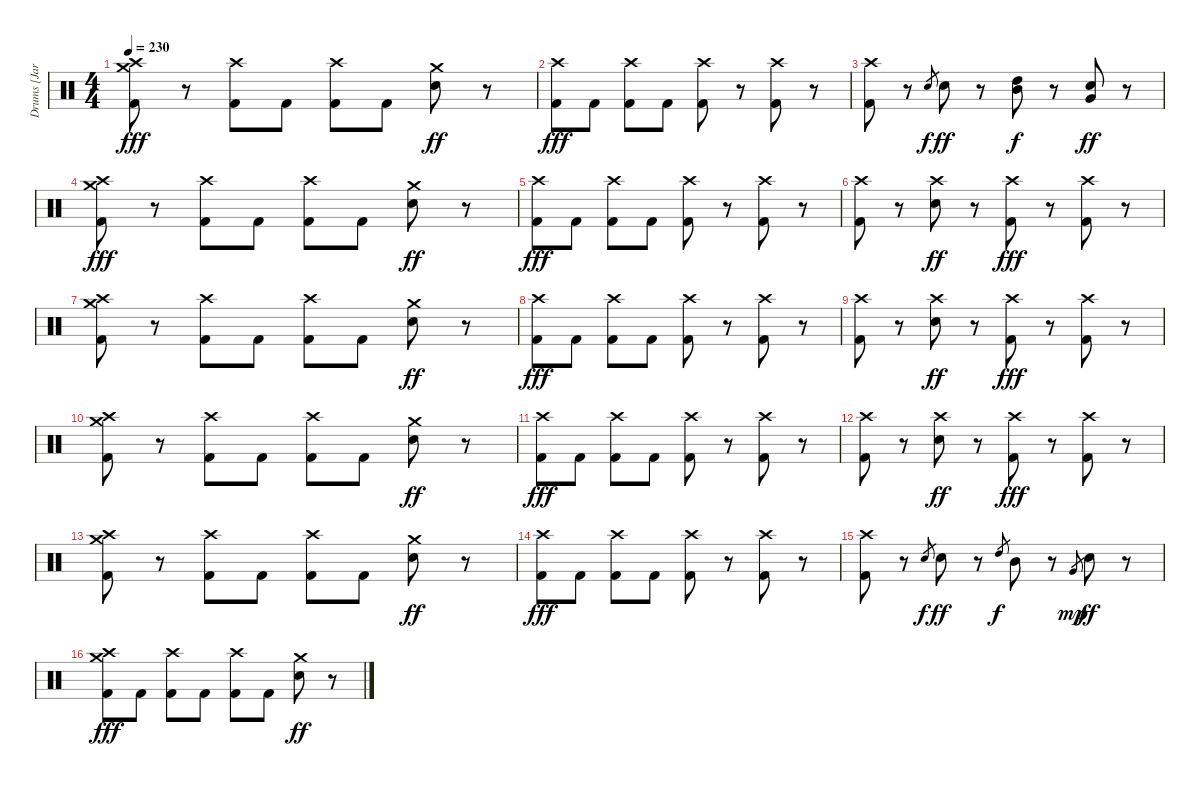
\track ("Drums [Jared]" "Drums [Jar") {instrument percussion}
\staff {score}
\articulation defaults
\ts (4 4)
\tempo 230
\clef neutral
\ks c
("Crash medium (hit)" "Crash high (hit)" "Kick (hit) 2").8{dy fff} r.8 ("Crash high (hit)" "Kick (hit) 2").8 "Kick (hit) 2".8 ("Crash high (hit)" "Kick (hit) 2").8 "Kick (hit) 2".8 ("Crash medium (hit)" "Electric Snare (hit)").8{dy ff} r.8 |
("Crash high (hit)" "Kick (hit) 2").8{dy fff} "Kick (hit) 2".8 ("Crash high (hit)" "Kick (hit) 2").8 "Kick (hit) 2".8 ("Crash high (hit)" "Kick (hit) 2").8 r.8 ("Crash high (hit)" "Kick (hit) 2").8 r.8 |
("Crash high (hit)" "Kick (hit) 2").8 r.8 "Electric Snare (hit)".8{gr dy f} "Electric Snare (hit)".8{dy ff} r.8 ("High Tom (hit)" "Mid Tom (hit)").8{dy f} r.8 ("Very Low Tom (hit)" "Electric Snare (hit)").8{dy ff} r.8 |
("Crash medium (hit)" "Crash high (hit)" "Kick (hit) 2").8{dy fff} r.8 ("Crash high (hit)" "Kick (hit) 2").8 "Kick (hit) 2".8 ("Crash high (hit)" "Kick (hit) 2").8 "Kick (hit) 2".8 ("Crash medium (hit)" "Electric Snare (hit)").8{dy ff} r.8 |
("Crash high (hit)" "Kick (hit) 2").8{dy fff} "Kick (hit) 2".8 ("Crash high (hit)" "Kick (hit) 2").8 "Kick (hit) 2".8 ("Crash high (hit)" "Kick (hit) 2").8 r.8 ("Crash high (hit)" "Kick (hit) 2").8 r.8 |
("Crash high (hit)" "Kick (hit) 2").8 r.8 ("Crash high (hit)" "Electric Snare (hit)").8{dy ff} r.8 ("Crash high (hit)" "Kick (hit) 2").8{dy fff} r.8 ("Crash high (hit)" "Kick (hit) 2").8 r.8 |
("Crash medium (hit)" "Crash high (hit)" "Kick (hit) 2").8 r.8 ("Crash high (hit)" "Kick (hit) 2").8 "Kick (hit) 2".8 ("Crash high (hit)" "Kick (hit) 2").8 "Kick (hit) 2".8 ("Crash medium (hit)" "Electric Snare (hit)").8{dy ff} r.8 |
("Crash high (hit)" "Kick (hit) 2").8{dy fff} "Kick (hit) 2".8 ("Crash high (hit)" "Kick (hit) 2").8 "Kick (hit) 2".8 ("Crash high (hit)" "Kick (hit) 2").8 r.8 ("Crash high (hit)" "Kick (hit) 2").8 r.8 |
("Crash high (hit)" "Kick (hit) 2").8 r.8 ("Crash high (hit)" "Electric Snare (hit)").8{dy ff} r.8 ("Crash high (hit)" "Kick (hit) 2").8{dy fff} r.8 ("Crash high (hit)" "Kick (hit) 2").8 r.8 |
("Crash medium (hit)" "Crash high (hit)" "Kick (hit) 2").8 r.8 ("Crash high (hit)" "Kick (hit) 2").8 "Kick (hit) 2".8 ("Crash high (hit)" "Kick (hit) 2").8 "Kick (hit) 2".8 ("Crash medium (hit)" "Electric Snare (hit)").8{dy ff} r.8 |
("Crash high (hit)" "Kick (hit) 2").8{dy fff} "Kick (hit) 2".8 ("Crash high (hit)" "Kick (hit) 2").8 "Kick (hit) 2".8 ("Crash high (hit)" "Kick (hit) 2").8 r.8 ("Crash high (hit)" "Kick (hit) 2").8 r.8 |
("Crash high (hit)" "Kick (hit) 2").8 r.8 ("Crash high (hit)" "Electric Snare (hit)").8{dy ff} r.8 ("Crash high (hit)" "Kick (hit) 2").8{dy fff} r.8 ("Crash high (hit)" "Kick (hit) 2").8 r.8 |
("Crash medium (hit)" "Crash high (hit)" "Kick (hit) 2").8 r.8 ("Crash high (hit)" "Kick (hit) 2").8 "Kick (hit) 2".8 ("Crash high (hit)" "Kick (hit) 2").8 "Kick (hit) 2".8 ("Crash medium (hit)" "Electric Snare (hit)").8{dy ff} r.8 |
("Crash high (hit)" "Kick (hit) 2").8{dy fff} "Kick (hit) 2".8 ("Crash high (hit)" "Kick (hit) 2").8 "Kick (hit) 2".8 ("Crash high (hit)" "Kick (hit) 2").8 r.8 ("Crash high (hit)" "Kick (hit) 2").8 r.8 |
("Crash high (hit)" "Kick (hit) 2").8 r.8 "Electric Snare (hit)".8{gr dy f} "Electric Snare (hit)".8{dy ff} r.8 "High Tom (hit)".8{gr dy f} "Mid Tom (hit)".8 r.8 "Very Low Tom (hit)".8{gr dy mp} "Electric Snare (hit)".8{dy ff} r.8 |
("Crash medium (hit)" "Crash high (hit)" "Kick (hit) 2").8{dy fff} "Kick (hit) 2".8 ("Crash high (hit)" "Kick (hit) 2").8 "Kick (hit) 2".8 ("Crash high (hit)" "Kick (hit) 2").8 "Kick (hit) 2".8 ("Crash medium (hit)" "Electric Snare (hit)").8{dy ff} r.8
